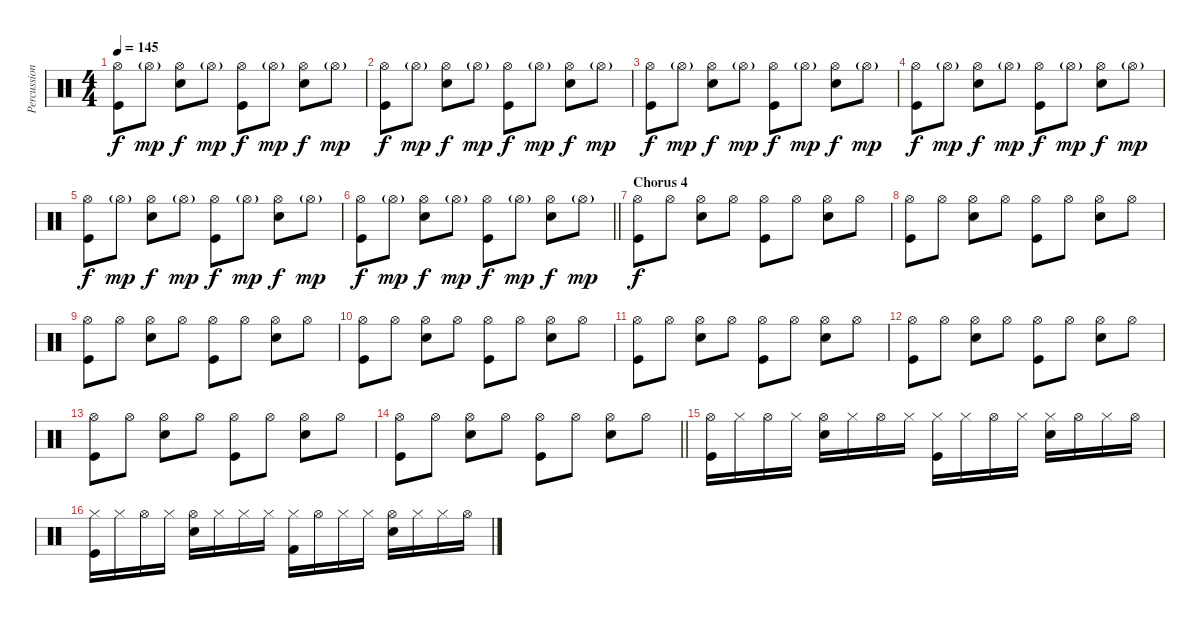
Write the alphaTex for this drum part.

\track ("Percussion" "Percussion") {instrument percussion}
\staff {score}
\articulation defaults
\ts (4 4)
\tempo 145
\clef neutral
\ks c
("Hi-Hat (open)" "Kick (hit)").8{dy f} "Hi-Hat (open)"{g}.8{dy mp} ("Hi-Hat (open)" "Snare (hit) 2").8{dy f} "Hi-Hat (open)"{g}.8{dy mp} ("Hi-Hat (open)" "Kick (hit)").8{dy f} "Hi-Hat (open)"{g}.8{dy mp} ("Hi-Hat (open)" "Snare (hit) 2").8{dy f} "Hi-Hat (open)"{g}.8{dy mp} |
("Hi-Hat (open)" "Kick (hit)").8{dy f} "Hi-Hat (open)"{g}.8{dy mp} ("Hi-Hat (open)" "Snare (hit) 2").8{dy f} "Hi-Hat (open)"{g}.8{dy mp} ("Hi-Hat (open)" "Kick (hit)").8{dy f} "Hi-Hat (open)"{g}.8{dy mp} ("Hi-Hat (open)" "Snare (hit) 2").8{dy f} "Hi-Hat (open)"{g}.8{dy mp} |
("Hi-Hat (open)" "Kick (hit)").8{dy f} "Hi-Hat (open)"{g}.8{dy mp} ("Hi-Hat (open)" "Snare (hit) 2").8{dy f} "Hi-Hat (open)"{g}.8{dy mp} ("Hi-Hat (open)" "Kick (hit)").8{dy f} "Hi-Hat (open)"{g}.8{dy mp} ("Hi-Hat (open)" "Snare (hit) 2").8{dy f} "Hi-Hat (open)"{g}.8{dy mp} |
("Hi-Hat (open)" "Kick (hit)").8{dy f} "Hi-Hat (open)"{g}.8{dy mp} ("Hi-Hat (open)" "Snare (hit) 2").8{dy f} "Hi-Hat (open)"{g}.8{dy mp} ("Hi-Hat (open)" "Kick (hit)").8{dy f} "Hi-Hat (open)"{g}.8{dy mp} ("Hi-Hat (open)" "Snare (hit) 2").8{dy f} "Hi-Hat (open)"{g}.8{dy mp} |
("Hi-Hat (open)" "Kick (hit)").8{dy f} "Hi-Hat (open)"{g}.8{dy mp} ("Hi-Hat (open)" "Snare (hit) 2").8{dy f} "Hi-Hat (open)"{g}.8{dy mp} ("Hi-Hat (open)" "Kick (hit)").8{dy f} "Hi-Hat (open)"{g}.8{dy mp} ("Hi-Hat (open)" "Snare (hit) 2").8{dy f} "Hi-Hat (open)"{g}.8{dy mp} |
\barLineRight lightlight
("Hi-Hat (open)" "Kick (hit)").8{dy f} "Hi-Hat (open)"{g}.8{dy mp} ("Hi-Hat (open)" "Snare (hit) 2").8{dy f} "Hi-Hat (open)"{g}.8{dy mp} ("Hi-Hat (open)" "Kick (hit)").8{dy f} "Hi-Hat (open)"{g}.8{dy mp} ("Hi-Hat (open)" "Snare (hit) 2").8{dy f} "Hi-Hat (open)"{g}.8{dy mp} |
\section ("" "Chorus 4")
("Hi-Hat (open)" "Kick (hit)").8{dy f} "Hi-Hat (open)".8 ("Hi-Hat (open)" "Snare (hit) 2").8 "Hi-Hat (open)".8 ("Hi-Hat (open)" "Kick (hit)").8 "Hi-Hat (open)".8 ("Hi-Hat (open)" "Snare (hit) 2").8 "Hi-Hat (open)".8 |
("Hi-Hat (open)" "Kick (hit)").8 "Hi-Hat (open)".8 ("Hi-Hat (open)" "Snare (hit) 2").8 "Hi-Hat (open)".8 ("Hi-Hat (open)" "Kick (hit)").8 "Hi-Hat (open)".8 ("Hi-Hat (open)" "Snare (hit) 2").8 "Hi-Hat (open)".8 |
("Hi-Hat (open)" "Kick (hit)").8 "Hi-Hat (open)".8 ("Hi-Hat (open)" "Snare (hit) 2").8 "Hi-Hat (open)".8 ("Hi-Hat (open)" "Kick (hit)").8 "Hi-Hat (open)".8 ("Hi-Hat (open)" "Snare (hit) 2").8 "Hi-Hat (open)".8 |
("Hi-Hat (open)" "Kick (hit)").8 "Hi-Hat (open)".8 ("Hi-Hat (open)" "Snare (hit) 2").8 "Hi-Hat (open)".8 ("Hi-Hat (open)" "Kick (hit)").8 "Hi-Hat (open)".8 ("Hi-Hat (open)" "Snare (hit) 2").8 "Hi-Hat (open)".8 |
("Hi-Hat (open)" "Kick (hit)").8 "Hi-Hat (open)".8 ("Hi-Hat (open)" "Snare (hit) 2").8 "Hi-Hat (open)".8 ("Hi-Hat (open)" "Kick (hit)").8 "Hi-Hat (open)".8 ("Hi-Hat (open)" "Snare (hit) 2").8 "Hi-Hat (open)".8 |
("Hi-Hat (open)" "Kick (hit)").8 "Hi-Hat (open)".8 ("Hi-Hat (open)" "Snare (hit) 2").8 "Hi-Hat (open)".8 ("Hi-Hat (open)" "Kick (hit)").8 "Hi-Hat (open)".8 ("Hi-Hat (open)" "Snare (hit) 2").8 "Hi-Hat (open)".8 |
("Hi-Hat (open)" "Kick (hit)").8 "Hi-Hat (open)".8 ("Hi-Hat (open)" "Snare (hit) 2").8 "Hi-Hat (open)".8 ("Hi-Hat (open)" "Kick (hit)").8 "Hi-Hat (open)".8 ("Hi-Hat (open)" "Snare (hit) 2").8 "Hi-Hat (open)".8 |
\barLineRight lightlight
("Hi-Hat (open)" "Kick (hit)").8 "Hi-Hat (open)".8 ("Hi-Hat (open)" "Snare (hit) 2").8 "Hi-Hat (open)".8 ("Hi-Hat (open)" "Kick (hit)").8 "Hi-Hat (open)".8 ("Hi-Hat (open)" "Snare (hit) 2").8 "Hi-Hat (open)".8 |
("Hi-Hat (open)" "Kick (hit)").16 "Hi-Hat (closed)".16 "Hi-Hat (open)".16 "Hi-Hat (closed)".16 ("Hi-Hat (open)" "Snare (hit) 2").16 "Hi-Hat (closed)".16 "Hi-Hat (open)".16 "Hi-Hat (closed)".16 ("Hi-Hat (closed)" "Kick (hit)").16 "Hi-Hat (closed)".16 "Hi-Hat (open)".16 "Hi-Hat (closed)".16 ("Hi-Hat (closed)" "Snare (hit) 2").16 "Hi-Hat (open)".16 "Hi-Hat (closed)".16 "Hi-Hat (open)".16 |
("Hi-Hat (closed)" "Kick (hit)").16 "Hi-Hat (closed)".16 "Hi-Hat (open)".16 "Hi-Hat (closed)".16 ("Hi-Hat (open)" "Snare (hit) 2").16 "Hi-Hat (closed)".16 "Hi-Hat (closed)".16 "Hi-Hat (closed)".16 ("Hi-Hat (closed)" "Kick (hit) 2").16 "Hi-Hat (open)".16 "Hi-Hat (closed)".16 "Hi-Hat (closed)".16 ("Hi-Hat (open)" "Snare (hit) 2").16 "Hi-Hat (closed)".16 "Hi-Hat (closed)".16 "Hi-Hat (open)".16
